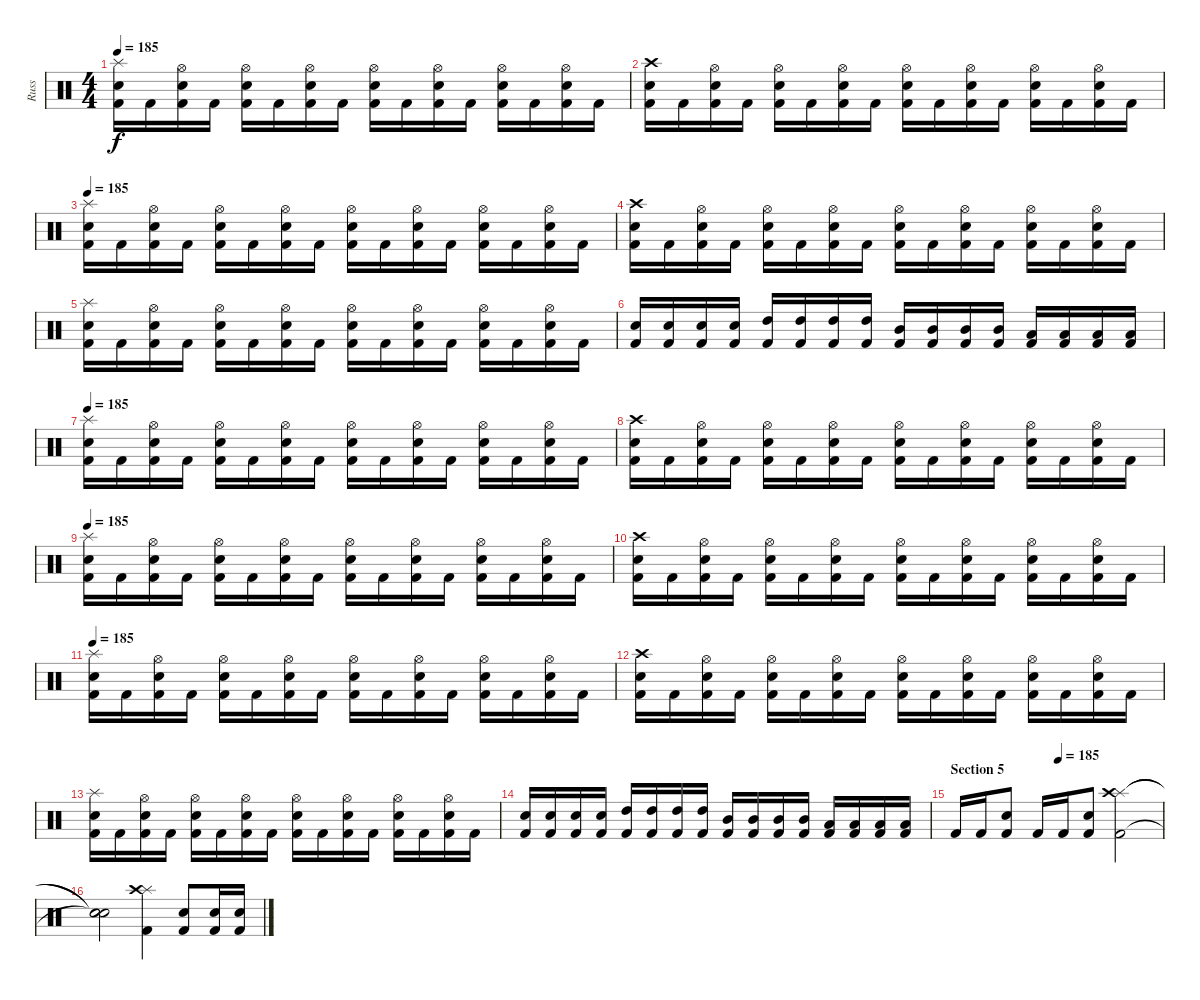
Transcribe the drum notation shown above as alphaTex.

\track ("Russ" "Russ") {instrument percussion}
\staff {score}
\articulation defaults
\ts (4 4)
\tempo 185
\clef neutral
\ks c
("Kick (hit) 2" "Snare (hit) 2" "Splash (hit)").16{dy f} "Kick (hit) 2".16 ("Kick (hit) 2" "Snare (hit) 2" "Hi-Hat (open)").16 "Kick (hit) 2".16 ("Kick (hit) 2" "Snare (hit) 2" "Hi-Hat (open)").16 "Kick (hit) 2".16 ("Kick (hit) 2" "Snare (hit) 2" "Hi-Hat (open)").16 "Kick (hit) 2".16 ("Kick (hit) 2" "Snare (hit) 2" "Hi-Hat (open)").16 "Kick (hit) 2".16 ("Kick (hit) 2" "Snare (hit) 2" "Hi-Hat (open)").16 "Kick (hit) 2".16 ("Kick (hit) 2" "Snare (hit) 2" "Hi-Hat (open)").16 "Kick (hit) 2".16 ("Kick (hit) 2" "Snare (hit) 2" "Hi-Hat (open)").16 "Kick (hit) 2".16 |
("Kick (hit) 2" "Snare (hit) 2" "Crash high (hit)").16 "Kick (hit) 2".16 ("Kick (hit) 2" "Snare (hit) 2" "Hi-Hat (open)").16 "Kick (hit) 2".16 ("Kick (hit) 2" "Snare (hit) 2" "Hi-Hat (open)").16 "Kick (hit) 2".16 ("Kick (hit) 2" "Snare (hit) 2" "Hi-Hat (open)").16 "Kick (hit) 2".16 ("Kick (hit) 2" "Snare (hit) 2" "Hi-Hat (open)").16 "Kick (hit) 2".16 ("Kick (hit) 2" "Snare (hit) 2" "Hi-Hat (open)").16 "Kick (hit) 2".16 ("Kick (hit) 2" "Snare (hit) 2" "Hi-Hat (open)").16 "Kick (hit) 2".16 ("Kick (hit) 2" "Snare (hit) 2" "Hi-Hat (open)").16 "Kick (hit) 2".16 |
\tempo 185
("Kick (hit) 2" "Snare (hit) 2" "Splash (hit)").16 "Kick (hit) 2".16 ("Kick (hit) 2" "Snare (hit) 2" "Hi-Hat (open)").16 "Kick (hit) 2".16 ("Kick (hit) 2" "Snare (hit) 2" "Hi-Hat (open)").16 "Kick (hit) 2".16 ("Kick (hit) 2" "Snare (hit) 2" "Hi-Hat (open)").16 "Kick (hit) 2".16 ("Kick (hit) 2" "Snare (hit) 2" "Hi-Hat (open)").16 "Kick (hit) 2".16 ("Kick (hit) 2" "Snare (hit) 2" "Hi-Hat (open)").16 "Kick (hit) 2".16 ("Kick (hit) 2" "Snare (hit) 2" "Hi-Hat (open)").16 "Kick (hit) 2".16 ("Kick (hit) 2" "Snare (hit) 2" "Hi-Hat (open)").16 "Kick (hit) 2".16 |
("Kick (hit) 2" "Snare (hit) 2" "Crash high (hit)").16 "Kick (hit) 2".16 ("Kick (hit) 2" "Snare (hit) 2" "Hi-Hat (open)").16 "Kick (hit) 2".16 ("Kick (hit) 2" "Snare (hit) 2" "Hi-Hat (open)").16 "Kick (hit) 2".16 ("Kick (hit) 2" "Snare (hit) 2" "Hi-Hat (open)").16 "Kick (hit) 2".16 ("Kick (hit) 2" "Snare (hit) 2" "Hi-Hat (open)").16 "Kick (hit) 2".16 ("Kick (hit) 2" "Snare (hit) 2" "Hi-Hat (open)").16 "Kick (hit) 2".16 ("Kick (hit) 2" "Snare (hit) 2" "Hi-Hat (open)").16 "Kick (hit) 2".16 ("Kick (hit) 2" "Snare (hit) 2" "Hi-Hat (open)").16 "Kick (hit) 2".16 |
("Kick (hit) 2" "Snare (hit) 2" "Splash (hit)").16 "Kick (hit) 2".16 ("Kick (hit) 2" "Snare (hit) 2" "Hi-Hat (open)").16 "Kick (hit) 2".16 ("Kick (hit) 2" "Snare (hit) 2" "Hi-Hat (open)").16 "Kick (hit) 2".16 ("Kick (hit) 2" "Snare (hit) 2" "Hi-Hat (open)").16 "Kick (hit) 2".16 ("Kick (hit) 2" "Snare (hit) 2" "Hi-Hat (open)").16 "Kick (hit) 2".16 ("Kick (hit) 2" "Snare (hit) 2" "Hi-Hat (open)").16 "Kick (hit) 2".16 ("Kick (hit) 2" "Snare (hit) 2" "Hi-Hat (open)").16 "Kick (hit) 2".16 ("Kick (hit) 2" "Snare (hit) 2" "Hi-Hat (open)").16 "Kick (hit) 2".16 |
("Kick (hit) 2" "Snare (hit) 2").16 ("Kick (hit) 2" "Snare (hit) 2").16 ("Kick (hit) 2" "Snare (hit) 2").16 ("Kick (hit) 2" "Snare (hit) 2").16 ("Kick (hit) 2" "High Tom (hit)").16 ("Kick (hit) 2" "High Tom (hit)").16 ("Kick (hit) 2" "High Tom (hit)").16 ("Kick (hit) 2" "High Tom (hit)").16 ("Kick (hit) 2" "Mid Tom (hit)").16 ("Kick (hit) 2" "Mid Tom (hit)").16 ("Kick (hit) 2" "Mid Tom (hit)").16 ("Kick (hit) 2" "Mid Tom (hit)").16 ("Kick (hit) 2" "Low Floor Tom (hit)").16 ("Kick (hit) 2" "Low Floor Tom (hit)").16 ("Kick (hit) 2" "Low Floor Tom (hit)").16 ("Kick (hit) 2" "Low Floor Tom (hit)").16 |
\tempo 185
("Kick (hit) 2" "Snare (hit) 2" "Splash (hit)").16 "Kick (hit) 2".16 ("Kick (hit) 2" "Snare (hit) 2" "Hi-Hat (open)").16 "Kick (hit) 2".16 ("Kick (hit) 2" "Snare (hit) 2" "Hi-Hat (open)").16 "Kick (hit) 2".16 ("Kick (hit) 2" "Snare (hit) 2" "Hi-Hat (open)").16 "Kick (hit) 2".16 ("Kick (hit) 2" "Snare (hit) 2" "Hi-Hat (open)").16 "Kick (hit) 2".16 ("Kick (hit) 2" "Snare (hit) 2" "Hi-Hat (open)").16 "Kick (hit) 2".16 ("Kick (hit) 2" "Snare (hit) 2" "Hi-Hat (open)").16 "Kick (hit) 2".16 ("Kick (hit) 2" "Snare (hit) 2" "Hi-Hat (open)").16 "Kick (hit) 2".16 |
("Kick (hit) 2" "Snare (hit) 2" "Crash high (hit)").16 "Kick (hit) 2".16 ("Kick (hit) 2" "Snare (hit) 2" "Hi-Hat (open)").16 "Kick (hit) 2".16 ("Kick (hit) 2" "Snare (hit) 2" "Hi-Hat (open)").16 "Kick (hit) 2".16 ("Kick (hit) 2" "Snare (hit) 2" "Hi-Hat (open)").16 "Kick (hit) 2".16 ("Kick (hit) 2" "Snare (hit) 2" "Hi-Hat (open)").16 "Kick (hit) 2".16 ("Kick (hit) 2" "Snare (hit) 2" "Hi-Hat (open)").16 "Kick (hit) 2".16 ("Kick (hit) 2" "Snare (hit) 2" "Hi-Hat (open)").16 "Kick (hit) 2".16 ("Kick (hit) 2" "Snare (hit) 2" "Hi-Hat (open)").16 "Kick (hit) 2".16 |
\tempo 185
("Kick (hit) 2" "Snare (hit) 2" "Splash (hit)").16 "Kick (hit) 2".16 ("Kick (hit) 2" "Snare (hit) 2" "Hi-Hat (open)").16 "Kick (hit) 2".16 ("Kick (hit) 2" "Snare (hit) 2" "Hi-Hat (open)").16 "Kick (hit) 2".16 ("Kick (hit) 2" "Snare (hit) 2" "Hi-Hat (open)").16 "Kick (hit) 2".16 ("Kick (hit) 2" "Snare (hit) 2" "Hi-Hat (open)").16 "Kick (hit) 2".16 ("Kick (hit) 2" "Snare (hit) 2" "Hi-Hat (open)").16 "Kick (hit) 2".16 ("Kick (hit) 2" "Snare (hit) 2" "Hi-Hat (open)").16 "Kick (hit) 2".16 ("Kick (hit) 2" "Snare (hit) 2" "Hi-Hat (open)").16 "Kick (hit) 2".16 |
("Kick (hit) 2" "Snare (hit) 2" "Crash high (hit)").16 "Kick (hit) 2".16 ("Kick (hit) 2" "Snare (hit) 2" "Hi-Hat (open)").16 "Kick (hit) 2".16 ("Kick (hit) 2" "Snare (hit) 2" "Hi-Hat (open)").16 "Kick (hit) 2".16 ("Kick (hit) 2" "Snare (hit) 2" "Hi-Hat (open)").16 "Kick (hit) 2".16 ("Kick (hit) 2" "Snare (hit) 2" "Hi-Hat (open)").16 "Kick (hit) 2".16 ("Kick (hit) 2" "Snare (hit) 2" "Hi-Hat (open)").16 "Kick (hit) 2".16 ("Kick (hit) 2" "Snare (hit) 2" "Hi-Hat (open)").16 "Kick (hit) 2".16 ("Kick (hit) 2" "Snare (hit) 2" "Hi-Hat (open)").16 "Kick (hit) 2".16 |
\tempo 185
("Kick (hit) 2" "Snare (hit) 2" "Splash (hit)").16 "Kick (hit) 2".16 ("Kick (hit) 2" "Snare (hit) 2" "Hi-Hat (open)").16 "Kick (hit) 2".16 ("Kick (hit) 2" "Snare (hit) 2" "Hi-Hat (open)").16 "Kick (hit) 2".16 ("Kick (hit) 2" "Snare (hit) 2" "Hi-Hat (open)").16 "Kick (hit) 2".16 ("Kick (hit) 2" "Snare (hit) 2" "Hi-Hat (open)").16 "Kick (hit) 2".16 ("Kick (hit) 2" "Snare (hit) 2" "Hi-Hat (open)").16 "Kick (hit) 2".16 ("Kick (hit) 2" "Snare (hit) 2" "Hi-Hat (open)").16 "Kick (hit) 2".16 ("Kick (hit) 2" "Snare (hit) 2" "Hi-Hat (open)").16 "Kick (hit) 2".16 |
("Kick (hit) 2" "Snare (hit) 2" "Crash high (hit)").16 "Kick (hit) 2".16 ("Kick (hit) 2" "Snare (hit) 2" "Hi-Hat (open)").16 "Kick (hit) 2".16 ("Kick (hit) 2" "Snare (hit) 2" "Hi-Hat (open)").16 "Kick (hit) 2".16 ("Kick (hit) 2" "Snare (hit) 2" "Hi-Hat (open)").16 "Kick (hit) 2".16 ("Kick (hit) 2" "Snare (hit) 2" "Hi-Hat (open)").16 "Kick (hit) 2".16 ("Kick (hit) 2" "Snare (hit) 2" "Hi-Hat (open)").16 "Kick (hit) 2".16 ("Kick (hit) 2" "Snare (hit) 2" "Hi-Hat (open)").16 "Kick (hit) 2".16 ("Kick (hit) 2" "Snare (hit) 2" "Hi-Hat (open)").16 "Kick (hit) 2".16 |
("Kick (hit) 2" "Snare (hit) 2" "Splash (hit)").16 "Kick (hit) 2".16 ("Kick (hit) 2" "Snare (hit) 2" "Hi-Hat (open)").16 "Kick (hit) 2".16 ("Kick (hit) 2" "Snare (hit) 2" "Hi-Hat (open)").16 "Kick (hit) 2".16 ("Kick (hit) 2" "Snare (hit) 2" "Hi-Hat (open)").16 "Kick (hit) 2".16 ("Kick (hit) 2" "Snare (hit) 2" "Hi-Hat (open)").16 "Kick (hit) 2".16 ("Kick (hit) 2" "Snare (hit) 2" "Hi-Hat (open)").16 "Kick (hit) 2".16 ("Kick (hit) 2" "Snare (hit) 2" "Hi-Hat (open)").16 "Kick (hit) 2".16 ("Kick (hit) 2" "Snare (hit) 2" "Hi-Hat (open)").16 "Kick (hit) 2".16 |
("Kick (hit) 2" "Snare (hit) 2").16 ("Kick (hit) 2" "Snare (hit) 2").16 ("Kick (hit) 2" "Snare (hit) 2").16 ("Kick (hit) 2" "Snare (hit) 2").16 ("Kick (hit) 2" "High Tom (hit)").16 ("Kick (hit) 2" "High Tom (hit)").16 ("Kick (hit) 2" "High Tom (hit)").16 ("Kick (hit) 2" "High Tom (hit)").16 ("Kick (hit) 2" "Mid Tom (hit)").16 ("Kick (hit) 2" "Mid Tom (hit)").16 ("Kick (hit) 2" "Mid Tom (hit)").16 ("Kick (hit) 2" "Mid Tom (hit)").16 ("Kick (hit) 2" "Low Floor Tom (hit)").16 ("Kick (hit) 2" "Low Floor Tom (hit)").16 ("Kick (hit) 2" "Low Floor Tom (hit)").16 ("Kick (hit) 2" "Low Floor Tom (hit)").16 |
\section ("" "Section 5")
\tempo (185 0.5)
"Kick (hit) 2".16 "Kick (hit) 2".16 ("Kick (hit) 2" "Snare (hit) 2").8 "Kick (hit) 2".16 "Kick (hit) 2".16 ("Kick (hit) 2" "Snare (hit) 2").8 ("Kick (hit) 2" "Splash (hit)" "Crash high (hit)").2 |
("Snare (hit)"{t} "Snare (hit)"{t} "Snare (hit)"{t}).2 ("Kick (hit) 2" "Splash (hit)" "Crash high (hit)").4 ("Kick (hit) 2" "Snare (hit) 2").8 ("Kick (hit) 2" "Snare (hit) 2").16 ("Kick (hit) 2" "Snare (hit) 2").16
